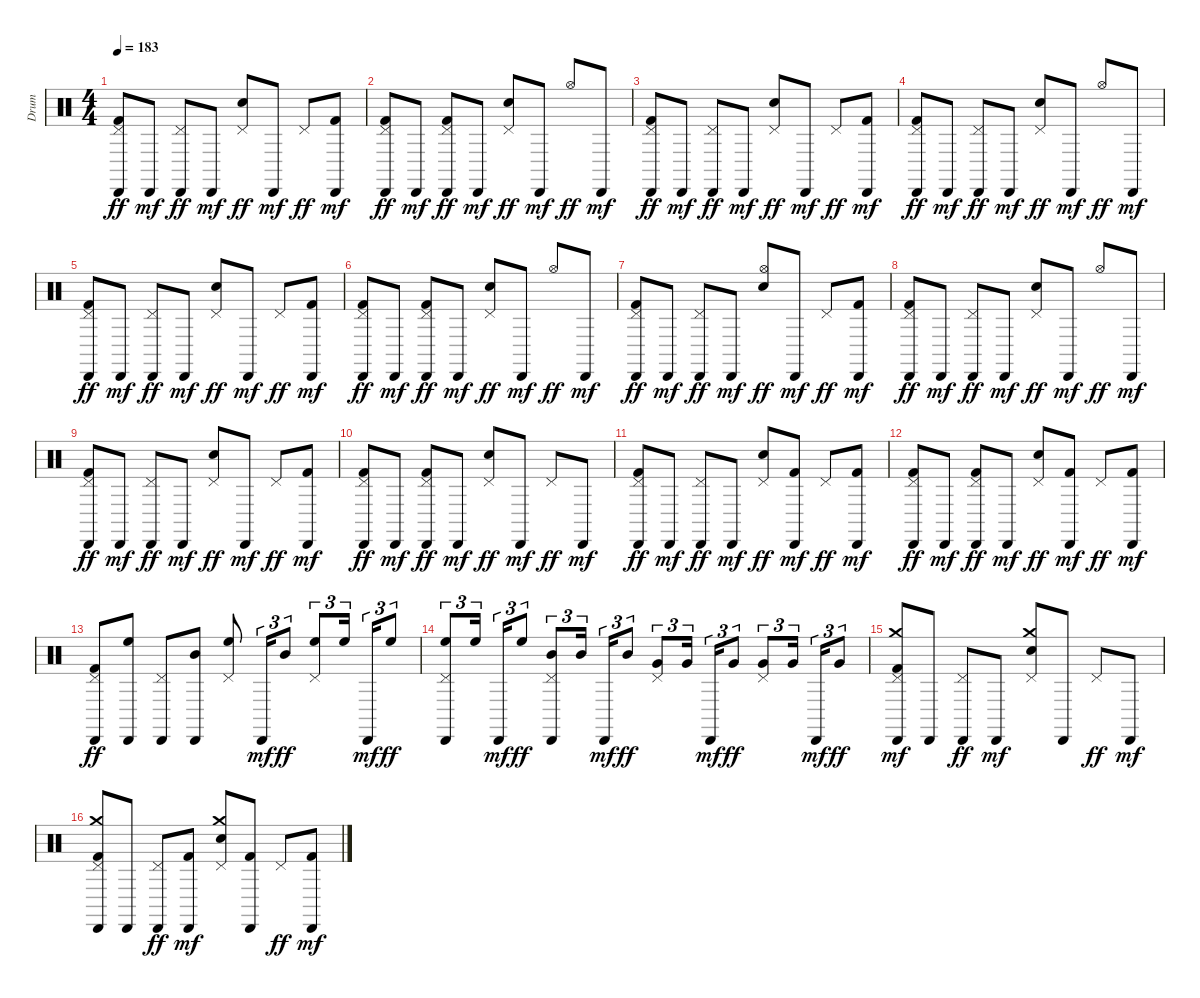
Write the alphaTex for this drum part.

\track ("Drum" "Drum") {instrument percussion}
\staff {score}
\articulation defaults
\ts (4 4)
\tempo 183
\clef neutral
\ks c
("Cabasa (hit)" "Kick (hit) 2" "Pedal Hi-Hat (hit)").8{dy ff} "Cabasa (hit)".8{dy mf} ("Cabasa (hit)" "Pedal Hi-Hat (hit)").8{dy ff} "Cabasa (hit)".8{dy mf} ("Electric Snare (hit)" "Pedal Hi-Hat (hit)").8{dy ff} "Cabasa (hit)".8{dy mf} "Pedal Hi-Hat (hit)".8{dy ff} ("Cabasa (hit)" "Kick (hit) 2").8{dy mf} |
("Cabasa (hit)" "Kick (hit) 2" "Pedal Hi-Hat (hit)").8{dy ff} "Cabasa (hit)".8{dy mf} ("Cabasa (hit)" "Kick (hit) 2" "Pedal Hi-Hat (hit)").8{dy ff} "Cabasa (hit)".8{dy mf} ("Electric Snare (hit)" "Pedal Hi-Hat (hit)").8{dy ff} "Cabasa (hit)".8{dy mf} "Hi-Hat (open)".8{dy ff} "Cabasa (hit)".8{dy mf} |
("Cabasa (hit)" "Kick (hit) 2" "Pedal Hi-Hat (hit)").8{dy ff} "Cabasa (hit)".8{dy mf} ("Cabasa (hit)" "Pedal Hi-Hat (hit)").8{dy ff} "Cabasa (hit)".8{dy mf} ("Electric Snare (hit)" "Pedal Hi-Hat (hit)").8{dy ff} "Cabasa (hit)".8{dy mf} "Pedal Hi-Hat (hit)".8{dy ff} ("Cabasa (hit)" "Kick (hit) 2").8{dy mf} |
("Cabasa (hit)" "Kick (hit) 2" "Pedal Hi-Hat (hit)").8{dy ff} "Cabasa (hit)".8{dy mf} ("Cabasa (hit)" "Pedal Hi-Hat (hit)").8{dy ff} "Cabasa (hit)".8{dy mf} ("Electric Snare (hit)" "Pedal Hi-Hat (hit)").8{dy ff} "Cabasa (hit)".8{dy mf} "Hi-Hat (open)".8{dy ff} "Cabasa (hit)".8{dy mf} |
("Cabasa (hit)" "Kick (hit) 2" "Pedal Hi-Hat (hit)").8{dy ff} "Cabasa (hit)".8{dy mf} ("Cabasa (hit)" "Pedal Hi-Hat (hit)").8{dy ff} "Cabasa (hit)".8{dy mf} ("Electric Snare (hit)" "Pedal Hi-Hat (hit)").8{dy ff} "Cabasa (hit)".8{dy mf} "Pedal Hi-Hat (hit)".8{dy ff} ("Cabasa (hit)" "Kick (hit) 2").8{dy mf} |
("Cabasa (hit)" "Kick (hit) 2" "Pedal Hi-Hat (hit)").8{dy ff} "Cabasa (hit)".8{dy mf} ("Cabasa (hit)" "Kick (hit) 2" "Pedal Hi-Hat (hit)").8{dy ff} "Cabasa (hit)".8{dy mf} ("Electric Snare (hit)" "Pedal Hi-Hat (hit)").8{dy ff} "Cabasa (hit)".8{dy mf} "Hi-Hat (open)".8{dy ff} "Cabasa (hit)".8{dy mf} |
("Cabasa (hit)" "Kick (hit) 2" "Pedal Hi-Hat (hit)").8{dy ff} "Cabasa (hit)".8{dy mf} ("Cabasa (hit)" "Pedal Hi-Hat (hit)").8{dy ff} "Cabasa (hit)".8{dy mf} ("Electric Snare (hit)" "Hi-Hat (open)").8{dy ff} "Cabasa (hit)".8{dy mf} "Pedal Hi-Hat (hit)".8{dy ff} ("Cabasa (hit)" "Kick (hit) 2").8{dy mf} |
("Cabasa (hit)" "Kick (hit) 2" "Pedal Hi-Hat (hit)").8{dy ff} "Cabasa (hit)".8{dy mf} ("Cabasa (hit)" "Pedal Hi-Hat (hit)").8{dy ff} "Cabasa (hit)".8{dy mf} ("Electric Snare (hit)" "Pedal Hi-Hat (hit)").8{dy ff} "Cabasa (hit)".8{dy mf} "Hi-Hat (open)".8{dy ff} "Cabasa (hit)".8{dy mf} |
("Cabasa (hit)" "Kick (hit) 2" "Pedal Hi-Hat (hit)").8{dy ff} "Cabasa (hit)".8{dy mf} ("Cabasa (hit)" "Pedal Hi-Hat (hit)").8{dy ff} "Cabasa (hit)".8{dy mf} ("Electric Snare (hit)" "Pedal Hi-Hat (hit)").8{dy ff} "Cabasa (hit)".8{dy mf} "Pedal Hi-Hat (hit)".8{dy ff} ("Cabasa (hit)" "Kick (hit) 2").8{dy mf} |
("Cabasa (hit)" "Kick (hit) 2" "Pedal Hi-Hat (hit)").8{dy ff} "Cabasa (hit)".8{dy mf} ("Cabasa (hit)" "Kick (hit) 2" "Pedal Hi-Hat (hit)").8{dy ff} "Cabasa (hit)".8{dy mf} ("Electric Snare (hit)" "Pedal Hi-Hat (hit)").8{dy ff} "Cabasa (hit)".8{dy mf} "Pedal Hi-Hat (hit)".8{dy ff} "Cabasa (hit)".8{dy mf} |
("Cabasa (hit)" "Kick (hit) 2" "Pedal Hi-Hat (hit)").8{dy ff} "Cabasa (hit)".8{dy mf} ("Cabasa (hit)" "Pedal Hi-Hat (hit)").8{dy ff} "Cabasa (hit)".8{dy mf} ("Electric Snare (hit)" "Pedal Hi-Hat (hit)").8{dy ff} ("Cabasa (hit)" "Kick (hit) 2").8{dy mf} "Pedal Hi-Hat (hit)".8{dy ff} ("Cabasa (hit)" "Kick (hit) 2").8{dy mf} |
("Cabasa (hit)" "Kick (hit) 2" "Pedal Hi-Hat (hit)").8{dy ff} "Cabasa (hit)".8{dy mf} ("Cabasa (hit)" "Kick (hit) 2" "Pedal Hi-Hat (hit)").8{dy ff} "Cabasa (hit)".8{dy mf} ("Electric Snare (hit)" "Pedal Hi-Hat (hit)").8{dy ff} ("Cabasa (hit)" "Kick (hit) 2").8{dy mf} "Pedal Hi-Hat (hit)".8{dy ff} ("Cabasa (hit)" "Kick (hit) 2").8{dy mf} |
("Cabasa (hit)" "Kick (hit) 2" "Pedal Hi-Hat (hit)").8{dy ff} ("Cabasa (hit)" "High Floor Tom (hit)").8 ("Cabasa (hit)" "Pedal Hi-Hat (hit)").8 ("Cabasa (hit)" "Mid Tom (hit)").8 ("High Floor Tom (hit)" "Pedal Hi-Hat (hit)").8 "Cabasa (hit)".16{tu (3 2) dy mf} "Mid Tom (hit)".8{tu (3 2) dy ff} ("High Floor Tom (hit)" "Pedal Hi-Hat (hit)").8{tu (3 2)} "High Floor Tom (hit)".16{tu (3 2) beam splitsecondary} "Cabasa (hit)".16{tu (3 2) dy mf} "High Floor Tom (hit)".8{tu (3 2) dy ff} |
("Cabasa (hit)" "High Floor Tom (hit)" "Pedal Hi-Hat (hit)").8{tu (3 2)} "High Floor Tom (hit)".16{tu (3 2) beam splitsecondary} "Cabasa (hit)".16{tu (3 2) dy mf} "High Floor Tom (hit)".8{tu (3 2) dy ff} ("Cabasa (hit)" "Mid Tom (hit)" "Pedal Hi-Hat (hit)").8{tu (3 2)} "Mid Tom (hit)".16{tu (3 2) beam splitsecondary} "Cabasa (hit)".16{tu (3 2) dy mf} "Mid Tom (hit)".8{tu (3 2) dy ff} ("Very Low Tom (hit)" "Pedal Hi-Hat (hit)").8{tu (3 2)} "Very Low Tom (hit)".16{tu (3 2) beam splitsecondary} "Cabasa (hit)".16{tu (3 2) dy mf} "Very Low Tom (hit)".8{tu (3 2) dy ff} ("Very Low Tom (hit)" "Pedal Hi-Hat (hit)").8{tu (3 2)} "Very Low Tom (hit)".16{tu (3 2) beam splitsecondary} "Cabasa (hit)".16{tu (3 2) dy mf} "Very Low Tom (hit)".8{tu (3 2) dy ff} |
("Cabasa (hit)" "Kick (hit) 2" "Pedal Hi-Hat (hit)" "Crash medium (hit)").8{dy mf} "Cabasa (hit)".8 ("Cabasa (hit)" "Pedal Hi-Hat (hit)").8{dy ff} "Cabasa (hit)".8{dy mf} ("Electric Snare (hit)" "Pedal Hi-Hat (hit)" "Crash medium (hit)").8 "Cabasa (hit)".8 "Pedal Hi-Hat (hit)".8{dy ff} "Cabasa (hit)".8{dy mf} |
("Cabasa (hit)" "Kick (hit) 2" "Pedal Hi-Hat (hit)" "Crash medium (hit)").8 "Cabasa (hit)".8 ("Cabasa (hit)" "Pedal Hi-Hat (hit)").8{dy ff} ("Cabasa (hit)" "Kick (hit) 2").8{dy mf} ("Electric Snare (hit)" "Pedal Hi-Hat (hit)" "Crash medium (hit)").8 ("Cabasa (hit)" "Kick (hit) 2").8 "Pedal Hi-Hat (hit)".8{dy ff} ("Cabasa (hit)" "Kick (hit) 2").8{dy mf}
